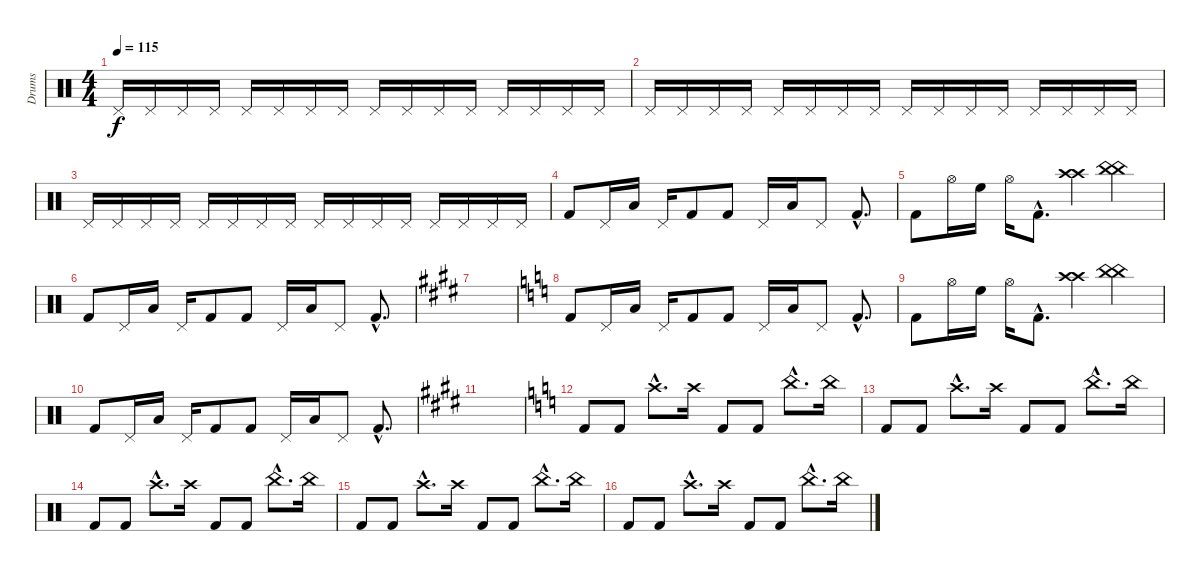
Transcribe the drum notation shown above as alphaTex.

\track ("Drums" "Drums") {instrument percussion}
\staff {score}
\articulation defaults
\ts (4 4)
\tempo 115
\clef neutral
\ks c "Pedal Hi-Hat (hit)".16{dy f volume 5} "Pedal Hi-Hat (hit)".16 "Pedal Hi-Hat (hit)".16 "Pedal Hi-Hat (hit)".16 "Pedal Hi-Hat (hit)".16 "Pedal Hi-Hat (hit)".16 "Pedal Hi-Hat (hit)".16 "Pedal Hi-Hat (hit)".16 "Pedal Hi-Hat (hit)".16 "Pedal Hi-Hat (hit)".16 "Pedal Hi-Hat (hit)".16 "Pedal Hi-Hat (hit)".16 "Pedal Hi-Hat (hit)".16 "Pedal Hi-Hat (hit)".16 "Pedal Hi-Hat (hit)".16 "Pedal Hi-Hat (hit)".16
|
"Pedal Hi-Hat (hit)".16{volume 11} "Pedal Hi-Hat (hit)".16 "Pedal Hi-Hat (hit)".16 "Pedal Hi-Hat (hit)".16 "Pedal Hi-Hat (hit)".16 "Pedal Hi-Hat (hit)".16 "Pedal Hi-Hat (hit)".16 "Pedal Hi-Hat (hit)".16 "Pedal Hi-Hat (hit)".16 "Pedal Hi-Hat (hit)".16 "Pedal Hi-Hat (hit)".16 "Pedal Hi-Hat (hit)".16 "Pedal Hi-Hat (hit)".16 "Pedal Hi-Hat (hit)".16 "Pedal Hi-Hat (hit)".16 "Pedal Hi-Hat (hit)".16 |
"Pedal Hi-Hat (hit)".16{volume 16} "Pedal Hi-Hat (hit)".16 "Pedal Hi-Hat (hit)".16 "Pedal Hi-Hat (hit)".16 "Pedal Hi-Hat (hit)".16 "Pedal Hi-Hat (hit)".16 "Pedal Hi-Hat (hit)".16 "Pedal Hi-Hat (hit)".16 "Pedal Hi-Hat (hit)".16 "Pedal Hi-Hat (hit)".16 "Pedal Hi-Hat (hit)".16 "Pedal Hi-Hat (hit)".16 "Pedal Hi-Hat (hit)".16 "Pedal Hi-Hat (hit)".16 "Pedal Hi-Hat (hit)".16 "Pedal Hi-Hat (hit)".16 |
"Kick (hit) 2".8 "Pedal Hi-Hat (hit)".16 "Low Tom (hit)".16 "Pedal Hi-Hat (hit)".16 "Kick (hit) 2".8 "Kick (hit) 2".8 "Pedal Hi-Hat (hit)".16 "Low Tom (hit)".16 "Pedal Hi-Hat (hit)".8 "Kick (hit) 2"{hac}.8{d} |
"Kick (hit) 2".8 "Hi-Hat (open)".16 "High Floor Tom (hit)".16 "Hi-Hat (open)".16 "Kick (hit) 2"{hac}.8{d} ("Crash high (hit)" "Crash high (hit)").4 ("China (hit)" "China (hit)").4 |
"Kick (hit) 2".8 "Pedal Hi-Hat (hit)".16 "Low Tom (hit)".16 "Pedal Hi-Hat (hit)".16 "Kick (hit) 2".8 "Kick (hit) 2".8 "Pedal Hi-Hat (hit)".16 "Low Tom (hit)".16 "Pedal Hi-Hat (hit)".8 "Kick (hit) 2"{hac}.8{d} |
\ks e
|
\ks c "Kick (hit) 2".8 "Pedal Hi-Hat (hit)".16 "Low Tom (hit)".16 "Pedal Hi-Hat (hit)".16 "Kick (hit) 2".8 "Kick (hit) 2".8 "Pedal Hi-Hat (hit)".16 "Low Tom (hit)".16 "Pedal Hi-Hat (hit)".8 "Kick (hit) 2"{hac}.8{d}
|
"Kick (hit) 2".8 "Hi-Hat (open)".16 "High Floor Tom (hit)".16 "Hi-Hat (open)".16 "Kick (hit) 2"{hac}.8{d} ("Crash high (hit)" "Crash high (hit)").4 ("China (hit)" "China (hit)").4 |
"Kick (hit) 2".8 "Pedal Hi-Hat (hit)".16 "Low Tom (hit)".16 "Pedal Hi-Hat (hit)".16 "Kick (hit) 2".8 "Kick (hit) 2".8 "Pedal Hi-Hat (hit)".16 "Low Tom (hit)".16 "Pedal Hi-Hat (hit)".8 "Kick (hit) 2"{hac}.8{d} |
\ks e
|
\ks c "Kick (hit) 2".8 "Kick (hit) 2".8 "Crash high (hit)"{hac}.8{d} "Crash high (hit)".16 "Kick (hit) 2".8 "Kick (hit) 2".8 "China (hit)"{hac}.8{d} "China (hit)".16
|
"Kick (hit) 2".8 "Kick (hit) 2".8 "Crash high (hit)"{hac}.8{d} "Crash high (hit)".16 "Kick (hit) 2".8 "Kick (hit) 2".8 "China (hit)"{hac}.8{d} "China (hit)".16 |
"Kick (hit) 2".8 "Kick (hit) 2".8 "Crash high (hit)"{hac}.8{d} "Crash high (hit)".16 "Kick (hit) 2".8 "Kick (hit) 2".8 "China (hit)"{hac}.8{d} "China (hit)".16 |
"Kick (hit) 2".8 "Kick (hit) 2".8 "Crash high (hit)"{hac}.8{d} "Crash high (hit)".16 "Kick (hit) 2".8 "Kick (hit) 2".8 "China (hit)"{hac}.8{d} "China (hit)".16 |
"Kick (hit) 2".8 "Kick (hit) 2".8 "Crash high (hit)"{hac}.8{d} "Crash high (hit)".16 "Kick (hit) 2".8 "Kick (hit) 2".8 "China (hit)"{hac}.8{d} "China (hit)".16
